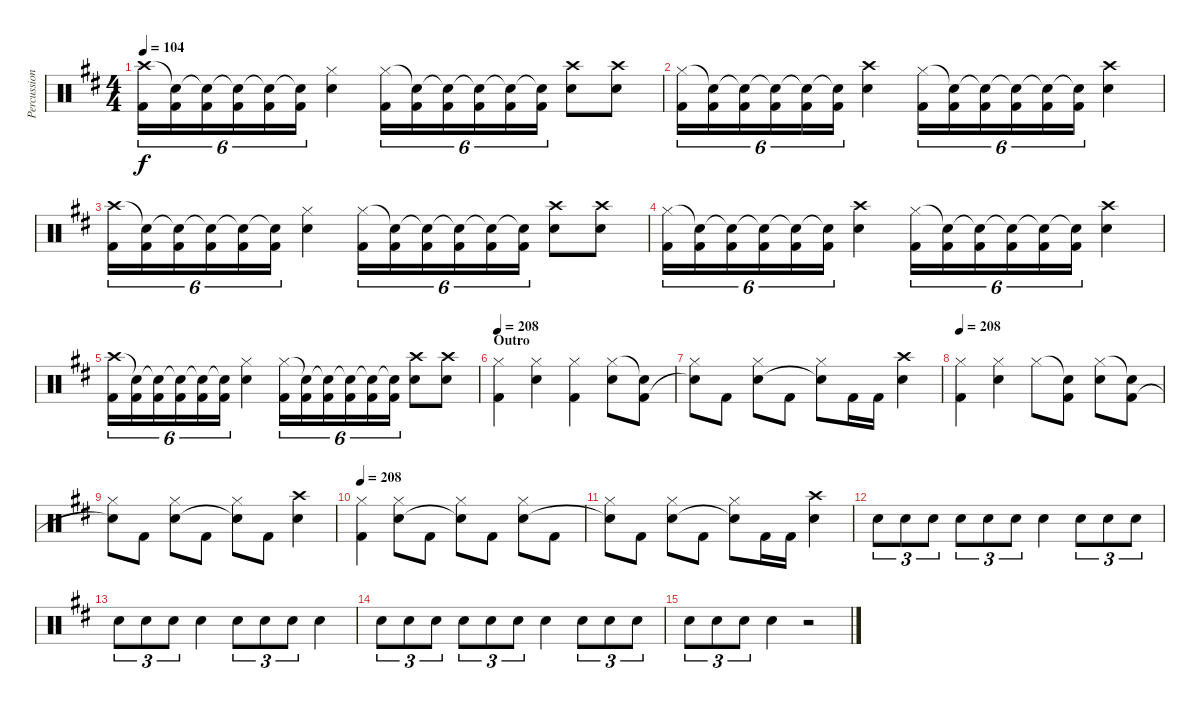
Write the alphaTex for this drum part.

\track ("Percussions" "Percussion") {instrument percussion}
\staff {score}
\articulation defaults
\ts (4 4)
\tempo 104
\clef neutral
\ks bminor
("Crash high (hit)" "Kick (hit) 2").16{tu (6 4) dy f} ("Snare (hit)"{t} "Kick (hit) 2").16{tu (6 4)} ("Snare (hit)"{t} "Kick (hit) 2").16{tu (6 4)} ("Snare (hit)"{t} "Kick (hit) 2").16{tu (6 4)} ("Snare (hit)"{t} "Kick (hit) 2").16{tu (6 4)} ("Snare (hit)"{t} "Kick (hit) 2").16{tu (6 4)} ("Hi-Hat (closed)" "Snare (hit) 2").4 ("Hi-Hat (closed)" "Kick (hit) 2").16{tu (6 4)} ("Snare (hit)"{t} "Kick (hit) 2").16{tu (6 4)} ("Snare (hit)"{t} "Kick (hit) 2").16{tu (6 4)} ("Snare (hit)"{t} "Kick (hit) 2").16{tu (6 4)} ("Snare (hit)"{t} "Kick (hit) 2").16{tu (6 4)} ("Snare (hit)"{t} "Kick (hit) 2").16{tu (6 4)} ("Crash high (hit)" "Snare (hit) 2").8 ("Crash high (hit)" "Snare (hit) 2").8 |
("Hi-Hat (closed)" "Kick (hit) 2").16{tu (6 4)} ("Snare (hit)"{t} "Kick (hit) 2").16{tu (6 4)} ("Snare (hit)"{t} "Kick (hit) 2").16{tu (6 4)} ("Snare (hit)"{t} "Kick (hit) 2").16{tu (6 4)} ("Snare (hit)"{t} "Kick (hit) 2").16{tu (6 4)} ("Snare (hit)"{t} "Kick (hit) 2").16{tu (6 4)} ("Crash high (hit)" "Snare (hit) 2").4 ("Hi-Hat (closed)" "Kick (hit) 2").16{tu (6 4)} ("Snare (hit)"{t} "Kick (hit) 2").16{tu (6 4)} ("Snare (hit)"{t} "Kick (hit) 2").16{tu (6 4)} ("Snare (hit)"{t} "Kick (hit) 2").16{tu (6 4)} ("Snare (hit)"{t} "Kick (hit) 2").16{tu (6 4)} ("Snare (hit)"{t} "Kick (hit) 2").16{tu (6 4)} ("Crash high (hit)" "Snare (hit) 2").4 |
("Crash high (hit)" "Kick (hit) 2").16{tu (6 4)} ("Snare (hit)"{t} "Kick (hit) 2").16{tu (6 4)} ("Snare (hit)"{t} "Kick (hit) 2").16{tu (6 4)} ("Snare (hit)"{t} "Kick (hit) 2").16{tu (6 4)} ("Snare (hit)"{t} "Kick (hit) 2").16{tu (6 4)} ("Snare (hit)"{t} "Kick (hit) 2").16{tu (6 4)} ("Hi-Hat (closed)" "Snare (hit) 2").4 ("Hi-Hat (closed)" "Kick (hit) 2").16{tu (6 4)} ("Snare (hit)"{t} "Kick (hit) 2").16{tu (6 4)} ("Snare (hit)"{t} "Kick (hit) 2").16{tu (6 4)} ("Snare (hit)"{t} "Kick (hit) 2").16{tu (6 4)} ("Snare (hit)"{t} "Kick (hit) 2").16{tu (6 4)} ("Snare (hit)"{t} "Kick (hit) 2").16{tu (6 4)} ("Crash high (hit)" "Snare (hit) 2").8 ("Crash high (hit)" "Snare (hit) 2").8 |
("Hi-Hat (closed)" "Kick (hit) 2").16{tu (6 4)} ("Snare (hit)"{t} "Kick (hit) 2").16{tu (6 4)} ("Snare (hit)"{t} "Kick (hit) 2").16{tu (6 4)} ("Snare (hit)"{t} "Kick (hit) 2").16{tu (6 4)} ("Snare (hit)"{t} "Kick (hit) 2").16{tu (6 4)} ("Snare (hit)"{t} "Kick (hit) 2").16{tu (6 4)} ("Crash high (hit)" "Snare (hit) 2").4 ("Hi-Hat (closed)" "Kick (hit) 2").16{tu (6 4)} ("Snare (hit)"{t} "Kick (hit) 2").16{tu (6 4)} ("Snare (hit)"{t} "Kick (hit) 2").16{tu (6 4)} ("Snare (hit)"{t} "Kick (hit) 2").16{tu (6 4)} ("Snare (hit)"{t} "Kick (hit) 2").16{tu (6 4)} ("Snare (hit)"{t} "Kick (hit) 2").16{tu (6 4)} ("Crash high (hit)" "Snare (hit) 2").4 |
("Crash high (hit)" "Kick (hit) 2").16{tu (6 4)} ("Snare (hit)"{t} "Kick (hit) 2").16{tu (6 4)} ("Snare (hit)"{t} "Kick (hit) 2").16{tu (6 4)} ("Snare (hit)"{t} "Kick (hit) 2").16{tu (6 4)} ("Snare (hit)"{t} "Kick (hit) 2").16{tu (6 4)} ("Snare (hit)"{t} "Kick (hit) 2").16{tu (6 4)} ("Hi-Hat (closed)" "Snare (hit) 2").4 ("Hi-Hat (closed)" "Kick (hit) 2").16{tu (6 4)} ("Snare (hit)"{t} "Kick (hit) 2").16{tu (6 4)} ("Snare (hit)"{t} "Kick (hit) 2").16{tu (6 4)} ("Snare (hit)"{t} "Kick (hit) 2").16{tu (6 4)} ("Snare (hit)"{t} "Kick (hit) 2").16{tu (6 4)} ("Snare (hit)"{t} "Kick (hit) 2").16{tu (6 4)} ("Crash high (hit)" "Snare (hit) 2").8 ("Crash high (hit)" "Snare (hit) 2").8 |
\section ("" "Outro")
\tempo 208
("Hi-Hat (closed)" "Kick (hit) 2").4{volume 15} ("Hi-Hat (closed)" "Snare (hit) 2").4 ("Hi-Hat (closed)" "Kick (hit) 2").4 ("Hi-Hat (closed)" "Snare (hit) 2").8 ("Snare (hit)"{t} "Kick (hit) 2").8 |
("Hi-Hat (closed)" "Snare (hit)"{t}).8 "Kick (hit) 2".8 ("Hi-Hat (closed)" "Snare (hit) 2").8 "Kick (hit) 2".8 ("Hi-Hat (closed)" "Snare (hit)"{t}).8 "Kick (hit) 2".16 "Kick (hit) 2".16 ("Crash high (hit)" "Snare (hit) 2").4 |
\tempo 208
("Hi-Hat (closed)" "Kick (hit) 2").4 ("Hi-Hat (closed)" "Snare (hit) 2").4 "Hi-Hat (closed)".8 ("Snare (hit)"{t} "Kick (hit) 2").8 ("Hi-Hat (closed)" "Snare (hit) 2").8 ("Snare (hit)"{t} "Kick (hit) 2").8 |
("Hi-Hat (closed)" "Snare (hit)"{t}).8 "Kick (hit) 2".8 ("Hi-Hat (closed)" "Snare (hit) 2").8 "Kick (hit) 2".8 ("Hi-Hat (closed)" "Snare (hit)"{t}).8 "Kick (hit) 2".8 ("Crash high (hit)" "Snare (hit) 2").4 |
\tempo 208
("Hi-Hat (closed)" "Kick (hit) 2").4 ("Hi-Hat (closed)" "Snare (hit) 2").8 "Kick (hit) 2".8 ("Hi-Hat (closed)" "Snare (hit)"{t}).8 "Kick (hit) 2".8 ("Hi-Hat (closed)" "Snare (hit) 2").8 "Kick (hit) 2".8 |
("Hi-Hat (closed)" "Snare (hit)"{t}).8 "Kick (hit) 2".8 ("Hi-Hat (closed)" "Snare (hit) 2").8 "Kick (hit) 2".8 ("Hi-Hat (closed)" "Snare (hit)"{t}).8 "Kick (hit) 2".16 "Kick (hit) 2".16 ("Crash high (hit)" "Snare (hit) 2").4 |
"Snare (hit) 2".8{tu (3 2)} "Snare (hit) 2".8{tu (3 2)} "Snare (hit) 2".8{tu (3 2)} "Snare (hit) 2".8{tu (3 2)} "Snare (hit) 2".8{tu (3 2)} "Snare (hit) 2".8{tu (3 2)} "Snare (hit) 2".4 "Snare (hit) 2".8{tu (3 2)} "Snare (hit) 2".8{tu (3 2)} "Snare (hit) 2".8{tu (3 2)} |
"Snare (hit) 2".8{tu (3 2)} "Snare (hit) 2".8{tu (3 2)} "Snare (hit) 2".8{tu (3 2)} "Snare (hit) 2".4 "Snare (hit) 2".8{tu (3 2)} "Snare (hit) 2".8{tu (3 2)} "Snare (hit) 2".8{tu (3 2)} "Snare (hit) 2".4 |
"Snare (hit) 2".8{tu (3 2)} "Snare (hit) 2".8{tu (3 2)} "Snare (hit) 2".8{tu (3 2)} "Snare (hit) 2".8{tu (3 2)} "Snare (hit) 2".8{tu (3 2)} "Snare (hit) 2".8{tu (3 2)} "Snare (hit) 2".4 "Snare (hit) 2".8{tu (3 2)} "Snare (hit) 2".8{tu (3 2)} "Snare (hit) 2".8{tu (3 2)} |
"Snare (hit) 2".8{tu (3 2)} "Snare (hit) 2".8{tu (3 2)} "Snare (hit) 2".8{tu (3 2)} "Snare (hit) 2".4 r.2
